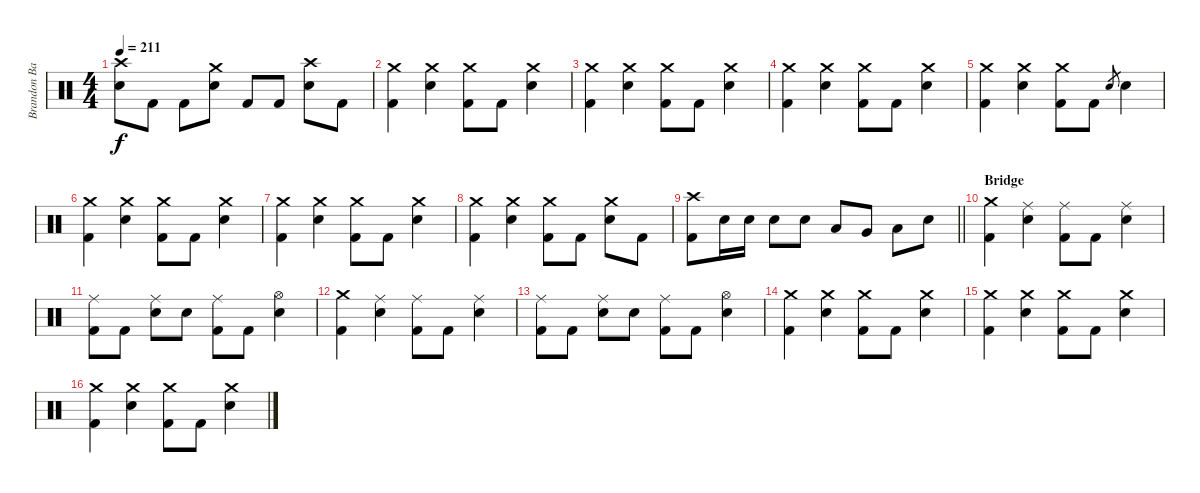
\track ("Brandon Barnes - Drums" "Brandon Ba") {instrument percussion}
\staff {score}
\articulation defaults
\ts (4 4)
\tempo 211
\clef neutral
\ks c
("Crash high (hit)" "Electric Snare (hit)").8{dy f} "Kick (hit) 2".8 "Kick (hit) 2".8 ("Crash medium (hit)" "Electric Snare (hit)").8 "Kick (hit) 2".8 "Kick (hit) 2".8 ("Crash high (hit)" "Electric Snare (hit)").8 "Kick (hit) 2".8 |
("Crash medium (hit)" "Kick (hit) 2").4 ("Crash medium (hit)" "Electric Snare (hit)").4 ("Crash medium (hit)" "Kick (hit) 2").8 "Kick (hit) 2".8 ("Crash medium (hit)" "Electric Snare (hit)").4 |
("Crash medium (hit)" "Kick (hit) 2").4 ("Crash medium (hit)" "Electric Snare (hit)").4 ("Crash medium (hit)" "Kick (hit) 2").8 "Kick (hit) 2".8 ("Crash medium (hit)" "Electric Snare (hit)").4 |
("Crash medium (hit)" "Kick (hit) 2").4 ("Crash medium (hit)" "Electric Snare (hit)").4 ("Crash medium (hit)" "Kick (hit) 2").8 "Kick (hit) 2".8 ("Crash medium (hit)" "Electric Snare (hit)").4 |
("Crash medium (hit)" "Kick (hit) 2").4 ("Crash medium (hit)" "Electric Snare (hit)").4 ("Crash medium (hit)" "Kick (hit) 2").8 "Kick (hit) 2".8 "Electric Snare (hit)".8{gr} "Electric Snare (hit)".4 |
("Crash medium (hit)" "Kick (hit) 2").4 ("Crash medium (hit)" "Electric Snare (hit)").4 ("Crash medium (hit)" "Kick (hit) 2").8 "Kick (hit) 2".8 ("Crash medium (hit)" "Electric Snare (hit)").4 |
("Crash medium (hit)" "Kick (hit) 2").4 ("Crash medium (hit)" "Electric Snare (hit)").4 ("Crash medium (hit)" "Kick (hit) 2").8 "Kick (hit) 2".8 ("Crash medium (hit)" "Electric Snare (hit)").4 |
("Crash medium (hit)" "Kick (hit) 2").4 ("Crash medium (hit)" "Electric Snare (hit)").4 ("Crash medium (hit)" "Kick (hit) 2").8 "Kick (hit) 2".8 ("Crash medium (hit)" "Electric Snare (hit)").8 "Kick (hit) 2".8 |
\barLineRight lightlight
("Crash high (hit)" "Kick (hit) 2").8 "Electric Snare (hit)".16 "Electric Snare (hit)".16 "Electric Snare (hit)".8 "Electric Snare (hit)".8 "Low Tom (hit)".8 "Very Low Tom (hit)".8 "Low Floor Tom (hit)".8 "Electric Snare (hit)".8 |
\section ("" "Bridge")
("Crash medium (hit)" "Kick (hit) 2").4 ("Ride (middle)" "Electric Snare (hit)").4 ("Ride (middle)" "Kick (hit) 2").8 "Kick (hit) 2".8 ("Ride (middle)" "Electric Snare (hit)").4 |
("Ride (middle)" "Kick (hit) 2").8 "Kick (hit) 2".8 ("Ride (middle)" "Electric Snare (hit)").8 "Electric Snare (hit)".8 ("Ride (middle)" "Kick (hit) 2").8 "Kick (hit) 2".8 ("Hi-Hat (open)" "Electric Snare (hit)").4 |
("Crash medium (hit)" "Kick (hit) 2").4 ("Ride (middle)" "Electric Snare (hit)").4 ("Ride (middle)" "Kick (hit) 2").8 "Kick (hit) 2".8 ("Ride (middle)" "Electric Snare (hit)").4 |
("Ride (middle)" "Kick (hit) 2").8 "Kick (hit) 2".8 ("Ride (middle)" "Electric Snare (hit)").8 "Electric Snare (hit)".8 ("Ride (middle)" "Kick (hit) 2").8 "Kick (hit) 2".8 ("Hi-Hat (open)" "Electric Snare (hit)").4 |
("Crash medium (hit)" "Kick (hit) 2").4 ("Crash medium (hit)" "Electric Snare (hit)").4 ("Crash medium (hit)" "Kick (hit) 2").8 "Kick (hit) 2".8 ("Crash medium (hit)" "Electric Snare (hit)").4 |
("Crash medium (hit)" "Kick (hit) 2").4 ("Crash medium (hit)" "Electric Snare (hit)").4 ("Crash medium (hit)" "Kick (hit) 2").8 "Kick (hit) 2".8 ("Crash medium (hit)" "Electric Snare (hit)").4 |
("Crash medium (hit)" "Kick (hit) 2").4 ("Crash medium (hit)" "Electric Snare (hit)").4 ("Crash medium (hit)" "Kick (hit) 2").8 "Kick (hit) 2".8 ("Crash medium (hit)" "Electric Snare (hit)").4
